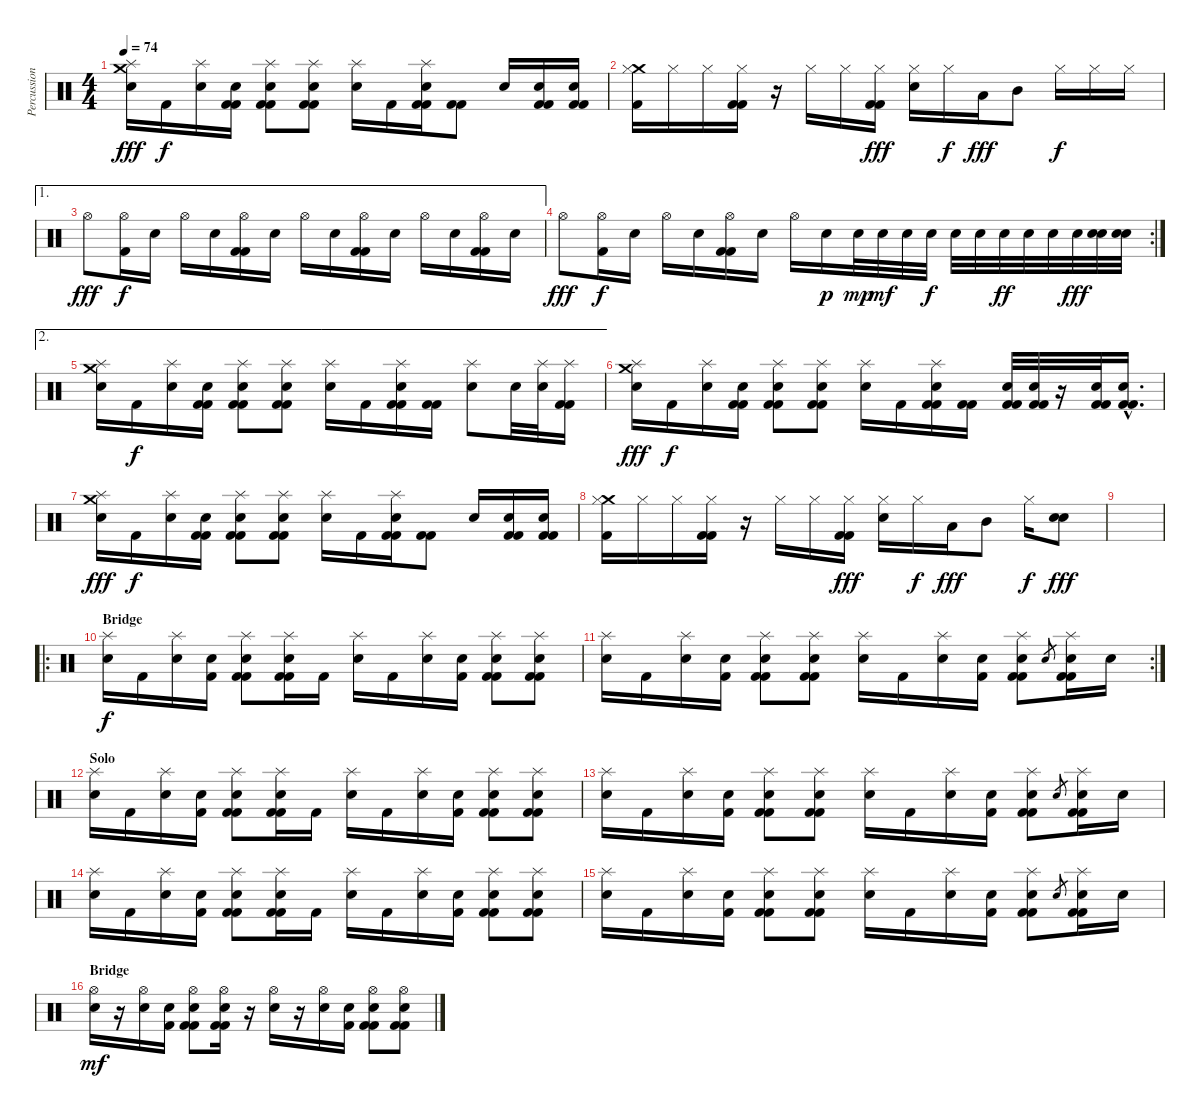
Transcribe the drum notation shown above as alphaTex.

\track ("Percussion" "Percussion") {instrument percussion}
\staff {score}
\articulation defaults
\ts (4 4)
\tempo 74
\clef neutral
\ks c
("Crash medium (hit)" "Splash (hit)" "Snare (hit) 2").16{dy fff} "Kick (hit) 2".16{dy f} ("Splash (hit)" "Snare (hit) 2").16 ("Snare (hit) 2" "Kick (hit) 2" "Kick (hit) 2").16 ("Splash (hit)" "Snare (hit) 2" "Kick (hit) 2" "Kick (hit) 2").8 ("Splash (hit)" "Snare (hit) 2" "Kick (hit) 2" "Kick (hit) 2").8 ("Splash (hit)" "Snare (hit) 2").16 "Kick (hit) 2".16 ("Splash (hit)" "Snare (hit) 2" "Kick (hit) 2" "Kick (hit) 2").16 ("Kick (hit) 2" "Kick (hit) 2").8 "Snare (hit) 2".16 ("Snare (hit) 2" "Kick (hit) 2" "Kick (hit) 2").16 ("Snare (hit) 2" "Kick (hit) 2" "Kick (hit) 2").16 |
("Crash medium (hit)" "Hi-Hat (closed)" "Kick (hit) 2").16 "Hi-Hat (closed)".16 "Hi-Hat (closed)".16 ("Hi-Hat (closed)" "Kick (hit) 2" "Kick (hit) 2").16 r.16 "Hi-Hat (closed)".16 "Hi-Hat (closed)".16 ("Hi-Hat (closed)" "Kick (hit) 2" "Kick (hit) 2").16{dy fff} ("Hi-Hat (closed)" "Snare (hit) 2").16 "Hi-Hat (closed)".16{dy f} "Low Tom (hit)".16{dy fff} "Mid Tom (hit)".8 "Hi-Hat (closed)".16{dy f} "Hi-Hat (closed)".16 "Hi-Hat (closed)".16 |
\ae 1 "Hi-Hat (open)".8{dy fff}
("Hi-Hat (open)" "Kick (hit) 2").16{dy f} "Snare (hit) 2".16 "Hi-Hat (open)".16 "Snare (hit) 2".16 ("Hi-Hat (open)" "Kick (hit) 2" "Kick (hit) 2").16 "Snare (hit) 2".16 "Hi-Hat (open)".16 "Snare (hit) 2".16 ("Hi-Hat (open)" "Kick (hit) 2" "Kick (hit) 2").16 "Snare (hit) 2".16 "Hi-Hat (open)".16 "Snare (hit) 2".16 ("Hi-Hat (open)" "Kick (hit) 2" "Kick (hit) 2").16 "Snare (hit) 2".16 |
\rc 2 "Hi-Hat (open)".8{dy fff}
("Hi-Hat (open)" "Kick (hit) 2").16{dy f} "Snare (hit) 2".16 "Hi-Hat (open)".16 "Snare (hit) 2".16 ("Hi-Hat (open)" "Kick (hit) 2" "Kick (hit) 2").16 "Snare (hit) 2".16 "Hi-Hat (open)".16 "Snare (hit) 2".16{dy p} "Snare (hit) 2".32{dy mp} "Snare (hit) 2".32{dy mf} "Snare (hit) 2".32 "Snare (hit) 2".32{dy f} "Snare (hit) 2".32 "Snare (hit) 2".32 "Snare (hit) 2".32{dy ff} "Snare (hit) 2".32 "Snare (hit) 2".32 "Snare (hit) 2".32{dy fff} ("Snare (hit) 2" "Snare (hit) 2").32 ("Snare (hit) 2" "Snare (hit) 2").32 |
\ae 2
("Crash medium (hit)" "Splash (hit)" "Snare (hit) 2").16 "Kick (hit) 2".16{dy f} ("Splash (hit)" "Snare (hit) 2").16 ("Snare (hit) 2" "Kick (hit) 2" "Kick (hit) 2").16 ("Splash (hit)" "Snare (hit) 2" "Kick (hit) 2" "Kick (hit) 2").8 ("Splash (hit)" "Snare (hit) 2" "Kick (hit) 2" "Kick (hit) 2").8 ("Splash (hit)" "Snare (hit) 2").16 "Kick (hit) 2".16 ("Splash (hit)" "Snare (hit) 2" "Kick (hit) 2" "Kick (hit) 2").16 ("Kick (hit) 2" "Kick (hit) 2").16 ("Splash (hit)" "Snare (hit) 2").8 "Snare (hit) 2".32 ("Splash (hit)" "Snare (hit) 2").32 ("Splash (hit)" "Kick (hit) 2" "Kick (hit) 2").16 |
("Crash medium (hit)" "Splash (hit)" "Snare (hit) 2").16{dy fff} "Kick (hit) 2".16{dy f} ("Splash (hit)" "Snare (hit) 2").16 ("Snare (hit) 2" "Kick (hit) 2" "Kick (hit) 2").16 ("Splash (hit)" "Snare (hit) 2" "Kick (hit) 2" "Kick (hit) 2").8 ("Splash (hit)" "Snare (hit) 2" "Kick (hit) 2" "Kick (hit) 2").8 ("Splash (hit)" "Snare (hit) 2").16 "Kick (hit) 2".16 ("Splash (hit)" "Snare (hit) 2" "Kick (hit) 2" "Kick (hit) 2").16 ("Kick (hit) 2" "Kick (hit) 2").16 ("Snare (hit) 2" "Kick (hit) 2" "Kick (hit) 2").32 ("Snare (hit) 2" "Kick (hit) 2" "Kick (hit) 2").32 r.16 ("Snare (hit) 2" "Kick (hit) 2" "Kick (hit) 2").32 ("Snare (hit) 2"{hac} "Kick (hit) 2"{hac} "Kick (hit) 2"{hac}).16{d} |
("Crash medium (hit)" "Splash (hit)" "Snare (hit) 2").16{dy fff} "Kick (hit) 2".16{dy f} ("Splash (hit)" "Snare (hit) 2").16 ("Snare (hit) 2" "Kick (hit) 2" "Kick (hit) 2").16 ("Splash (hit)" "Snare (hit) 2" "Kick (hit) 2" "Kick (hit) 2").8 ("Splash (hit)" "Snare (hit) 2" "Kick (hit) 2" "Kick (hit) 2").8 ("Splash (hit)" "Snare (hit) 2").16 "Kick (hit) 2".16 ("Splash (hit)" "Snare (hit) 2" "Kick (hit) 2" "Kick (hit) 2").16 ("Kick (hit) 2" "Kick (hit) 2").8 "Snare (hit) 2".16 ("Snare (hit) 2" "Kick (hit) 2" "Kick (hit) 2").16 ("Snare (hit) 2" "Kick (hit) 2" "Kick (hit) 2").16 |
("Crash medium (hit)" "Hi-Hat (closed)" "Kick (hit) 2").16 "Hi-Hat (closed)".16 "Hi-Hat (closed)".16 ("Hi-Hat (closed)" "Kick (hit) 2" "Kick (hit) 2").16 r.16 "Hi-Hat (closed)".16 "Hi-Hat (closed)".16 ("Hi-Hat (closed)" "Kick (hit) 2" "Kick (hit) 2").16{dy fff} ("Hi-Hat (closed)" "Snare (hit) 2").16 "Hi-Hat (closed)".16{dy f} "Low Tom (hit)".16{dy fff} "Mid Tom (hit)".8 "Hi-Hat (closed)".16{dy f} ("Snare (hit) 2" "Snare (hit) 2").8{dy fff} |
|
\ro
\section ("" "Bridge")
("Splash (hit)" "Snare (hit) 2").16{dy f} "Kick (hit) 2".16 ("Splash (hit)" "Snare (hit) 2").16 ("Snare (hit) 2" "Kick (hit) 2").16 ("Splash (hit)" "Snare (hit) 2" "Kick (hit) 2" "Kick (hit) 2").8 ("Splash (hit)" "Snare (hit) 2" "Kick (hit) 2" "Kick (hit) 2").16 "Kick (hit) 2".16 ("Splash (hit)" "Snare (hit) 2").16 "Kick (hit) 2".16 ("Splash (hit)" "Snare (hit) 2").16 ("Snare (hit) 2" "Kick (hit) 2").16 ("Splash (hit)" "Snare (hit) 2" "Kick (hit) 2" "Kick (hit) 2").8 ("Splash (hit)" "Snare (hit) 2" "Kick (hit) 2" "Kick (hit) 2").8 |
\rc 2
("Splash (hit)" "Snare (hit) 2").16 "Kick (hit) 2".16 ("Splash (hit)" "Snare (hit) 2").16 ("Snare (hit) 2" "Kick (hit) 2").16 ("Splash (hit)" "Snare (hit) 2" "Kick (hit) 2" "Kick (hit) 2").8 ("Splash (hit)" "Snare (hit) 2" "Kick (hit) 2" "Kick (hit) 2").8 ("Splash (hit)" "Snare (hit) 2").16 "Kick (hit) 2".16 ("Splash (hit)" "Snare (hit) 2").16 ("Snare (hit) 2" "Kick (hit) 2").16 ("Splash (hit)" "Snare (hit) 2" "Kick (hit) 2" "Kick (hit) 2").8 "Snare (hit) 2".8{gr} ("Splash (hit)" "Snare (hit) 2" "Kick (hit) 2" "Kick (hit) 2").16 "Snare (hit) 2".16 |
\section ("" "Solo")
("Splash (hit)" "Snare (hit) 2").16 "Kick (hit) 2".16 ("Splash (hit)" "Snare (hit) 2").16 ("Snare (hit) 2" "Kick (hit) 2").16 ("Splash (hit)" "Snare (hit) 2" "Kick (hit) 2" "Kick (hit) 2").8 ("Splash (hit)" "Snare (hit) 2" "Kick (hit) 2" "Kick (hit) 2").16 "Kick (hit) 2".16 ("Splash (hit)" "Snare (hit) 2").16 "Kick (hit) 2".16 ("Splash (hit)" "Snare (hit) 2").16 ("Snare (hit) 2" "Kick (hit) 2").16 ("Splash (hit)" "Snare (hit) 2" "Kick (hit) 2" "Kick (hit) 2").8 ("Splash (hit)" "Snare (hit) 2" "Kick (hit) 2" "Kick (hit) 2").8 |
("Splash (hit)" "Snare (hit) 2").16 "Kick (hit) 2".16 ("Splash (hit)" "Snare (hit) 2").16 ("Snare (hit) 2" "Kick (hit) 2").16 ("Splash (hit)" "Snare (hit) 2" "Kick (hit) 2" "Kick (hit) 2").8 ("Splash (hit)" "Snare (hit) 2" "Kick (hit) 2" "Kick (hit) 2").8 ("Splash (hit)" "Snare (hit) 2").16 "Kick (hit) 2".16 ("Splash (hit)" "Snare (hit) 2").16 ("Snare (hit) 2" "Kick (hit) 2").16 ("Splash (hit)" "Snare (hit) 2" "Kick (hit) 2" "Kick (hit) 2").8 "Snare (hit) 2".8{gr} ("Splash (hit)" "Snare (hit) 2" "Kick (hit) 2" "Kick (hit) 2").16 "Snare (hit) 2".16 |
("Splash (hit)" "Snare (hit) 2").16 "Kick (hit) 2".16 ("Splash (hit)" "Snare (hit) 2").16 ("Snare (hit) 2" "Kick (hit) 2").16 ("Splash (hit)" "Snare (hit) 2" "Kick (hit) 2" "Kick (hit) 2").8 ("Splash (hit)" "Snare (hit) 2" "Kick (hit) 2" "Kick (hit) 2").16 "Kick (hit) 2".16 ("Splash (hit)" "Snare (hit) 2").16 "Kick (hit) 2".16 ("Splash (hit)" "Snare (hit) 2").16 ("Snare (hit) 2" "Kick (hit) 2").16 ("Splash (hit)" "Snare (hit) 2" "Kick (hit) 2" "Kick (hit) 2").8 ("Splash (hit)" "Snare (hit) 2" "Kick (hit) 2" "Kick (hit) 2").8 |
("Splash (hit)" "Snare (hit) 2").16 "Kick (hit) 2".16 ("Splash (hit)" "Snare (hit) 2").16 ("Snare (hit) 2" "Kick (hit) 2").16 ("Splash (hit)" "Snare (hit) 2" "Kick (hit) 2" "Kick (hit) 2").8 ("Splash (hit)" "Snare (hit) 2" "Kick (hit) 2" "Kick (hit) 2").8 ("Splash (hit)" "Snare (hit) 2").16 "Kick (hit) 2".16 ("Splash (hit)" "Snare (hit) 2").16 ("Snare (hit) 2" "Kick (hit) 2").16 ("Splash (hit)" "Snare (hit) 2" "Kick (hit) 2" "Kick (hit) 2").8 "Snare (hit) 2".8{gr} ("Splash (hit)" "Snare (hit) 2" "Kick (hit) 2" "Kick (hit) 2").16 "Snare (hit) 2".16 |
\section ("" "Bridge")
("Hi-Hat (open)" "Snare (hit) 2").16{dy mf} r.16 ("Hi-Hat (open)" "Snare (hit) 2").16 ("Snare (hit) 2" "Kick (hit) 2").16 ("Hi-Hat (open)" "Snare (hit) 2" "Kick (hit) 2" "Kick (hit) 2").8 ("Hi-Hat (open)" "Snare (hit) 2" "Kick (hit) 2" "Kick (hit) 2").16 r.16 ("Hi-Hat (open)" "Snare (hit) 2").16 r.16 ("Hi-Hat (open)" "Snare (hit) 2").16 ("Snare (hit) 2" "Kick (hit) 2").16 ("Hi-Hat (open)" "Snare (hit) 2" "Kick (hit) 2" "Kick (hit) 2").8 ("Hi-Hat (open)" "Snare (hit) 2" "Kick (hit) 2" "Kick (hit) 2").8
